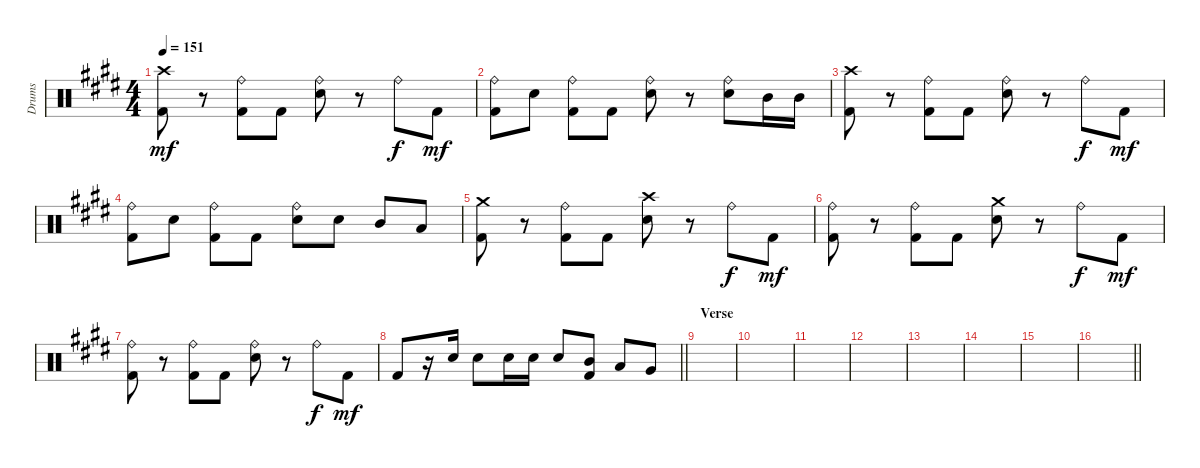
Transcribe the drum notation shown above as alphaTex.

\track ("Drums" "Drums") {instrument percussion}
\staff {score}
\articulation defaults
\ts (4 4)
\tempo 151
\clef neutral
\ks e
("Crash high (hit)" "Kick (hit) 2").8{dy mf} r.8 ("Ride (bell)" "Kick (hit) 2").8 "Kick (hit) 2".8 ("Ride (bell)" "Electric Snare (hit)").8 r.8 "Ride (bell)".8{dy f} "Kick (hit) 2".8{dy mf} |
("Ride (bell)" "Kick (hit) 2").8 "Electric Snare (hit)".8 ("Ride (bell)" "Kick (hit) 2").8 "Kick (hit) 2".8 ("Ride (bell)" "Electric Snare (hit)").8 r.8 ("Ride (bell)" "Electric Snare (hit)").8 "Mid Tom (hit)".16 "Mid Tom (hit)".16 |
("Crash high (hit)" "Kick (hit) 2").8 r.8 ("Ride (bell)" "Kick (hit) 2").8 "Kick (hit) 2".8 ("Ride (bell)" "Electric Snare (hit)").8 r.8 "Ride (bell)".8{dy f} "Kick (hit) 2".8{dy mf} |
("Ride (bell)" "Kick (hit) 2").8 "Electric Snare (hit)".8 ("Ride (bell)" "Kick (hit) 2").8 "Kick (hit) 2".8 ("Ride (bell)" "Electric Snare (hit)").8 "Electric Snare (hit)".8 "Mid Tom (hit)".8 "Low Tom (hit)".8 |
("Crash medium (hit)" "Kick (hit) 2").8 r.8 ("Ride (bell)" "Kick (hit) 2").8 "Kick (hit) 2".8 ("Crash high (hit)" "Electric Snare (hit)").8 r.8 "Ride (bell)".8{dy f} "Kick (hit) 2".8{dy mf} |
("Ride (bell)" "Kick (hit) 2").8 r.8 ("Ride (bell)" "Kick (hit) 2").8 "Kick (hit) 2".8 ("Crash medium (hit)" "Electric Snare (hit)").8 r.8 "Ride (bell)".8{dy f} "Kick (hit) 2".8{dy mf} |
("Ride (bell)" "Kick (hit) 2").8 r.8 ("Ride (bell)" "Kick (hit) 2").8 "Kick (hit) 2".8 ("Ride (bell)" "Electric Snare (hit)").8 r.8 "Ride (bell)".8{dy f} "Kick (hit) 2".8{dy mf} |
\barLineRight lightlight "Kick (hit) 2".8
r.16 "Electric Snare (hit)".16 "Electric Snare (hit)".8 "Electric Snare (hit)".16 "Electric Snare (hit)".16 "Electric Snare (hit)".8 ("Mid Tom (hit)" "Kick (hit) 2").8 "Low Tom (hit)".8 "Very Low Tom (hit)".8 |
\section ("" "Verse")
|
|
|
|
|
|
|
\barLineRight lightlight
